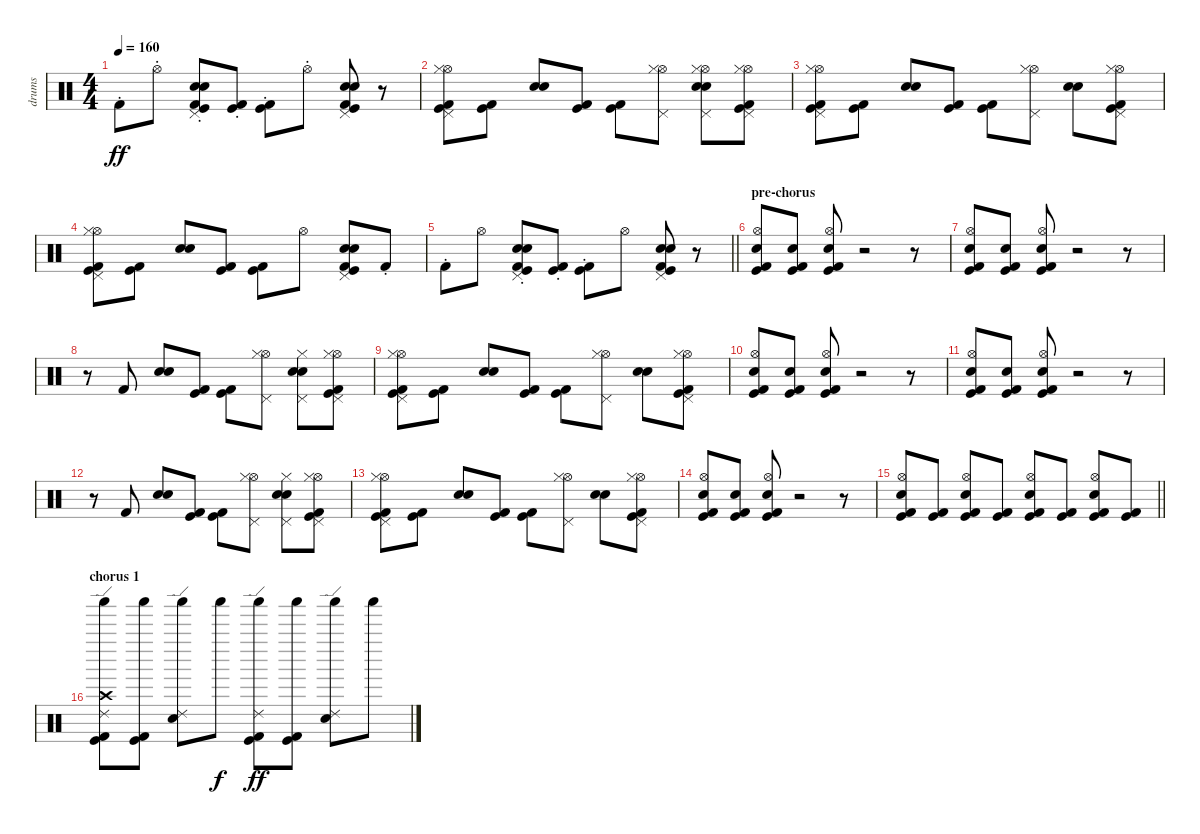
\track ("drums" "drums") {instrument percussion}
\staff {score}
\articulation defaults
\ts (4 4)
\tempo 160
\clef neutral
\ks c "Kick (hit) 2"{st}.8{dy ff} "Hi-Hat (open)"{st}.8
("Electric Snare (hit)"{st} "Pedal Hi-Hat (hit)"{st} "Snare (hit) 2"{st} "Kick (hit)"{st} "Kick (hit) 2"{st}).8 ("Kick (hit)"{st} "Kick (hit) 2"{st}).8 ("Kick (hit)"{st} "Kick (hit) 2"{st}).8 "Hi-Hat (open)"{st}.8 ("Electric Snare (hit)" "Pedal Hi-Hat (hit)" "Snare (hit) 2" "Kick (hit)" "Kick (hit) 2").8 r.8 |
("Hi-Hat (open)" "Hi-Hat (closed)" "Pedal Hi-Hat (hit)" "Kick (hit)" "Kick (hit) 2").8 ("Kick (hit)" "Kick (hit) 2").8 ("Electric Snare (hit)" "Snare (hit) 2").8 ("Kick (hit)" "Kick (hit) 2").8 ("Kick (hit)" "Kick (hit) 2").8 ("Hi-Hat (open)" "Pedal Hi-Hat (hit)" "Hi-Hat (closed)").8 ("Hi-Hat (open)" "Electric Snare (hit)" "Pedal Hi-Hat (hit)" "Hi-Hat (closed)" "Snare (hit) 2").8 ("Hi-Hat (open)" "Pedal Hi-Hat (hit)" "Hi-Hat (closed)" "Kick (hit)" "Kick (hit) 2").8 |
("Hi-Hat (open)" "Pedal Hi-Hat (hit)" "Hi-Hat (closed)" "Kick (hit)" "Kick (hit) 2").8 ("Kick (hit)" "Kick (hit) 2").8 ("Electric Snare (hit)" "Snare (hit) 2").8 ("Kick (hit)" "Kick (hit) 2").8 ("Kick (hit)" "Kick (hit) 2").8 ("Hi-Hat (open)" "Pedal Hi-Hat (hit)" "Hi-Hat (closed)").8 ("Electric Snare (hit)" "Snare (hit) 2").8 ("Hi-Hat (open)" "Pedal Hi-Hat (hit)" "Hi-Hat (closed)" "Kick (hit)" "Kick (hit) 2").8 |
("Hi-Hat (open)" "Pedal Hi-Hat (hit)" "Hi-Hat (closed)" "Kick (hit)" "Kick (hit) 2").8 ("Kick (hit)" "Kick (hit) 2").8 ("Electric Snare (hit)" "Snare (hit) 2").8 ("Kick (hit)" "Kick (hit) 2").8 ("Kick (hit)" "Kick (hit) 2").8 "Hi-Hat (open)".8 ("Electric Snare (hit)" "Pedal Hi-Hat (hit)" "Snare (hit) 2" "Kick (hit)" "Kick (hit) 2").8 "Kick (hit) 2"{st}.8 |
\barLineRight lightlight "Kick (hit) 2"{st}.8 "Hi-Hat (open)".8
("Electric Snare (hit)"{st} "Pedal Hi-Hat (hit)"{st} "Snare (hit) 2"{st} "Kick (hit)"{st} "Kick (hit) 2"{st}).8 ("Kick (hit)"{st} "Kick (hit) 2"{st}).8 ("Kick (hit)"{st} "Kick (hit) 2"{st}).8 "Hi-Hat (open)".8 ("Electric Snare (hit)" "Pedal Hi-Hat (hit)" "Snare (hit) 2" "Kick (hit)" "Kick (hit) 2").8 r.8 |
\section ("" "pre-chorus")
("Hi-Hat (open)" "Electric Snare (hit)" "Kick (hit) 2" "Kick (hit)").8 ("Electric Snare (hit)" "Kick (hit) 2" "Kick (hit)").8 ("Hi-Hat (open)" "Electric Snare (hit)" "Kick (hit) 2" "Kick (hit)").8 r.2 r.8 |
("Hi-Hat (open)" "Electric Snare (hit)" "Kick (hit) 2" "Kick (hit)").8 ("Electric Snare (hit)" "Kick (hit) 2" "Kick (hit)").8 ("Hi-Hat (open)" "Electric Snare (hit)" "Kick (hit) 2" "Kick (hit)").8 r.2 r.8 |
r.8 "Kick (hit) 2".8 ("Electric Snare (hit)" "Snare (hit) 2").8 ("Kick (hit)" "Kick (hit) 2").8 ("Kick (hit)" "Kick (hit) 2").8 ("Hi-Hat (open)" "Pedal Hi-Hat (hit)" "Hi-Hat (closed)").8 ("Electric Snare (hit)" "Pedal Hi-Hat (hit)" "Hi-Hat (closed)" "Snare (hit) 2").8 ("Hi-Hat (open)" "Pedal Hi-Hat (hit)" "Hi-Hat (closed)" "Kick (hit)" "Kick (hit) 2").8 |
("Hi-Hat (open)" "Pedal Hi-Hat (hit)" "Hi-Hat (closed)" "Kick (hit)" "Kick (hit) 2").8 ("Kick (hit)" "Kick (hit) 2").8 ("Electric Snare (hit)" "Snare (hit) 2").8 ("Kick (hit)" "Kick (hit) 2").8 ("Kick (hit)" "Kick (hit) 2").8 ("Hi-Hat (open)" "Pedal Hi-Hat (hit)" "Hi-Hat (closed)").8 ("Electric Snare (hit)" "Snare (hit) 2").8 ("Hi-Hat (open)" "Pedal Hi-Hat (hit)" "Hi-Hat (closed)" "Kick (hit)" "Kick (hit) 2").8 |
("Hi-Hat (open)" "Electric Snare (hit)" "Kick (hit) 2" "Kick (hit)").8 ("Electric Snare (hit)" "Kick (hit) 2" "Kick (hit)").8 ("Hi-Hat (open)" "Electric Snare (hit)" "Kick (hit) 2" "Kick (hit)").8 r.2 r.8 |
("Hi-Hat (open)" "Electric Snare (hit)" "Kick (hit) 2" "Kick (hit)").8 ("Electric Snare (hit)" "Kick (hit) 2" "Kick (hit)").8 ("Hi-Hat (open)" "Electric Snare (hit)" "Kick (hit) 2" "Kick (hit)").8 r.2 r.8 |
r.8 "Kick (hit) 2".8 ("Electric Snare (hit)" "Snare (hit) 2").8 ("Kick (hit)" "Kick (hit) 2").8 ("Kick (hit)" "Kick (hit) 2").8 ("Hi-Hat (open)" "Pedal Hi-Hat (hit)" "Hi-Hat (closed)").8 ("Electric Snare (hit)" "Pedal Hi-Hat (hit)" "Hi-Hat (closed)" "Snare (hit) 2").8 ("Hi-Hat (open)" "Pedal Hi-Hat (hit)" "Hi-Hat (closed)" "Kick (hit)" "Kick (hit) 2").8 |
("Hi-Hat (open)" "Pedal Hi-Hat (hit)" "Hi-Hat (closed)" "Kick (hit)" "Kick (hit) 2").8 ("Kick (hit)" "Kick (hit) 2").8 ("Electric Snare (hit)" "Snare (hit) 2").8 ("Kick (hit)" "Kick (hit) 2").8 ("Kick (hit)" "Kick (hit) 2").8 ("Hi-Hat (open)" "Pedal Hi-Hat (hit)" "Hi-Hat (closed)").8 ("Electric Snare (hit)" "Snare (hit) 2").8 ("Hi-Hat (open)" "Pedal Hi-Hat (hit)" "Hi-Hat (closed)" "Kick (hit)" "Kick (hit) 2").8 |
("Hi-Hat (open)" "Electric Snare (hit)" "Kick (hit) 2" "Kick (hit)").8 ("Electric Snare (hit)" "Kick (hit) 2" "Kick (hit)").8 ("Hi-Hat (open)" "Electric Snare (hit)" "Kick (hit) 2" "Kick (hit)").8 r.2 r.8 |
\barLineRight lightlight
("Hi-Hat (open)" "Electric Snare (hit)" "Kick (hit) 2" "Kick (hit)").8 ("Kick (hit) 2" "Kick (hit)").8 ("Hi-Hat (open)" "Electric Snare (hit)" "Kick (hit) 2" "Kick (hit)").8 ("Kick (hit) 2" "Kick (hit)").8 ("Hi-Hat (open)" "Electric Snare (hit)" "Kick (hit) 2" "Kick (hit)").8 ("Kick (hit) 2" "Kick (hit)").8 ("Hi-Hat (open)" "Electric Snare (hit)" "Kick (hit) 2" "Kick (hit)").8 ("Kick (hit) 2" "Kick (hit)").8 |
\section ("" "chorus 1")
("Shaker (hit)" "Kick (hit) 2" "Ride (edge) 2" "Crash high (hit)" "Kick (hit)").8 ("Shaker (hit)" "Kick (hit) 2" "Kick (hit)").8 ("Shaker (hit)" "Ride (edge) 2" "Electric Snare (hit)").8 "Shaker (hit)".8{dy f} ("Shaker (hit)" "Kick (hit) 2" "Ride (edge) 2" "Kick (hit)").8{dy ff} ("Shaker (hit)" "Kick (hit) 2" "Kick (hit)").8 ("Shaker (hit)" "Ride (edge) 2" "Electric Snare (hit)").8 "Shaker (hit)".8
